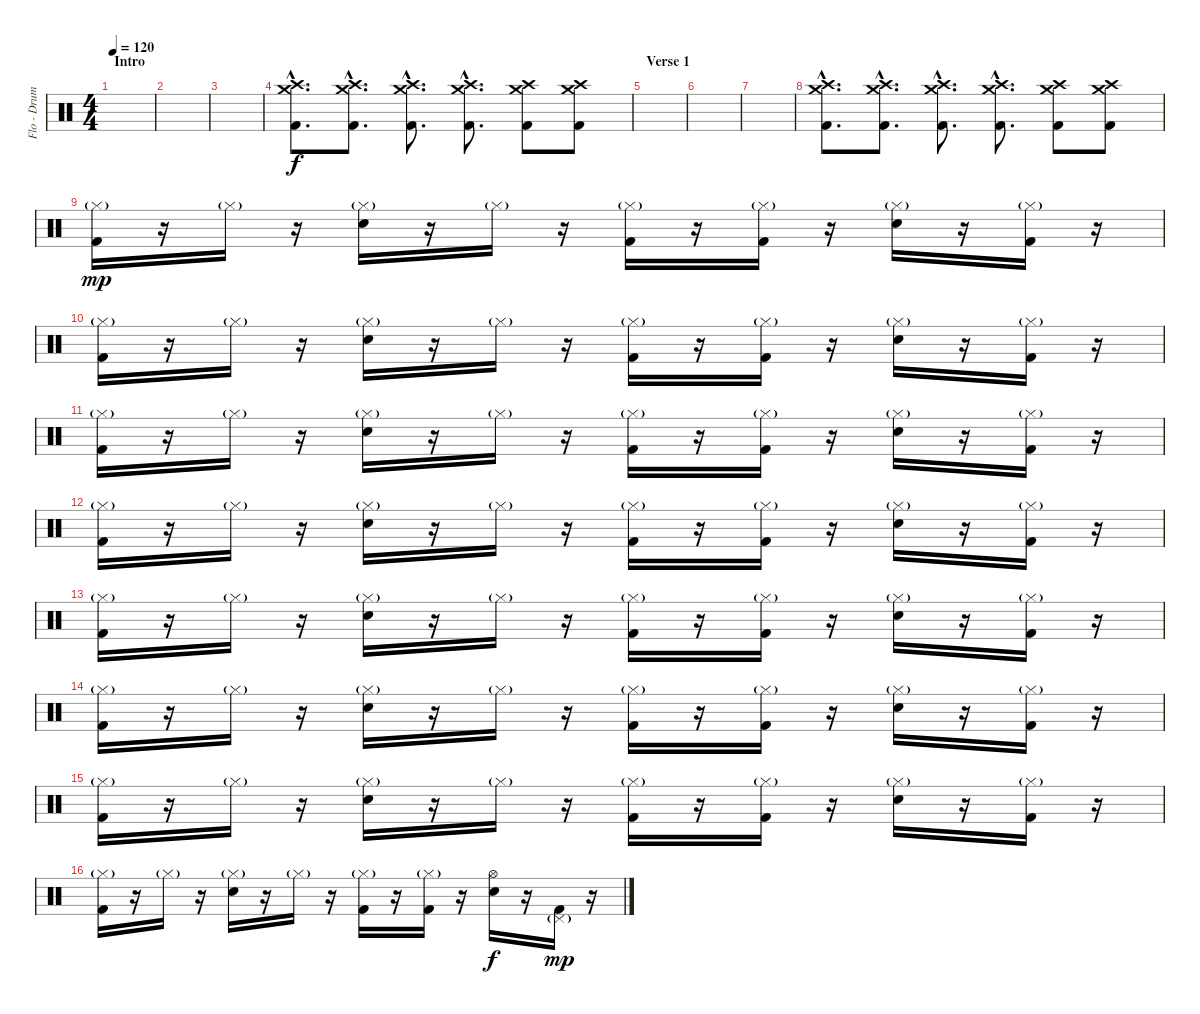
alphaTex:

\track ("Flo - Drums" "Flo - Drum") {instrument percussion}
\staff {score}
\articulation defaults
\ts (4 4)
\section ("" "Intro")
\tempo 120
\clef neutral
\ks c
|
|
|
("Crash medium (hit)"{hac} "Crash high (hit)"{hac} "Kick (hit) 2"{hac}).8{d} ("Crash medium (hit)"{hac} "Crash high (hit)"{hac} "Kick (hit) 2"{hac}).8{d} ("Crash medium (hit)"{hac} "Crash high (hit)"{hac} "Kick (hit) 2"{hac}).8{d} ("Crash medium (hit)"{hac} "Crash high (hit)"{hac} "Kick (hit) 2"{hac}).8{d} ("Crash medium (hit)" "Crash high (hit)" "Kick (hit) 2").8 ("Crash medium (hit)" "Crash high (hit)" "Kick (hit) 2").8 |
\section ("" "Verse 1")
|
|
|
("Crash medium (hit)"{hac} "Crash high (hit)"{hac} "Kick (hit) 2"{hac}).8{d} ("Crash medium (hit)"{hac} "Crash high (hit)"{hac} "Kick (hit) 2"{hac}).8{d} ("Crash medium (hit)"{hac} "Crash high (hit)"{hac} "Kick (hit) 2"{hac}).8{d} ("Crash medium (hit)"{hac} "Crash high (hit)"{hac} "Kick (hit) 2"{hac}).8{d} ("Crash medium (hit)" "Crash high (hit)" "Kick (hit) 2").8 ("Crash medium (hit)" "Crash high (hit)" "Kick (hit) 2").8 |
("Hi-Hat (closed)"{g} "Kick (hit) 2").16{dy mp} r.16 "Hi-Hat (closed)"{g}.16 r.16 ("Hi-Hat (closed)"{g} "Electric Snare (hit)").16 r.16 "Hi-Hat (closed)"{g}.16 r.16 ("Hi-Hat (closed)"{g} "Kick (hit) 2").16 r.16 ("Hi-Hat (closed)"{g} "Kick (hit) 2").16 r.16 ("Hi-Hat (closed)"{g} "Electric Snare (hit)").16 r.16 ("Hi-Hat (closed)"{g} "Kick (hit) 2").16 r.16 |
("Hi-Hat (closed)"{g} "Kick (hit) 2").16 r.16 "Hi-Hat (closed)"{g}.16 r.16 ("Hi-Hat (closed)"{g} "Electric Snare (hit)").16 r.16 "Hi-Hat (closed)"{g}.16 r.16 ("Hi-Hat (closed)"{g} "Kick (hit) 2").16 r.16 ("Hi-Hat (closed)"{g} "Kick (hit) 2").16 r.16 ("Hi-Hat (closed)"{g} "Electric Snare (hit)").16 r.16 ("Hi-Hat (closed)"{g} "Kick (hit) 2").16 r.16 |
("Hi-Hat (closed)"{g} "Kick (hit) 2").16 r.16 "Hi-Hat (closed)"{g}.16 r.16 ("Hi-Hat (closed)"{g} "Electric Snare (hit)").16 r.16 "Hi-Hat (closed)"{g}.16 r.16 ("Hi-Hat (closed)"{g} "Kick (hit) 2").16 r.16 ("Hi-Hat (closed)"{g} "Kick (hit) 2").16 r.16 ("Hi-Hat (closed)"{g} "Electric Snare (hit)").16 r.16 ("Hi-Hat (closed)"{g} "Kick (hit) 2").16 r.16 |
("Hi-Hat (closed)"{g} "Kick (hit) 2").16 r.16 "Hi-Hat (closed)"{g}.16 r.16 ("Hi-Hat (closed)"{g} "Electric Snare (hit)").16 r.16 "Hi-Hat (closed)"{g}.16 r.16 ("Hi-Hat (closed)"{g} "Kick (hit) 2").16 r.16 ("Hi-Hat (closed)"{g} "Kick (hit) 2").16 r.16 ("Hi-Hat (closed)"{g} "Electric Snare (hit)").16 r.16 ("Hi-Hat (closed)"{g} "Kick (hit) 2").16 r.16 |
("Hi-Hat (closed)"{g} "Kick (hit) 2").16 r.16 "Hi-Hat (closed)"{g}.16 r.16 ("Hi-Hat (closed)"{g} "Electric Snare (hit)").16 r.16 "Hi-Hat (closed)"{g}.16 r.16 ("Hi-Hat (closed)"{g} "Kick (hit) 2").16 r.16 ("Hi-Hat (closed)"{g} "Kick (hit) 2").16 r.16 ("Hi-Hat (closed)"{g} "Electric Snare (hit)").16 r.16 ("Hi-Hat (closed)"{g} "Kick (hit) 2").16 r.16 |
("Hi-Hat (closed)"{g} "Kick (hit) 2").16 r.16 "Hi-Hat (closed)"{g}.16 r.16 ("Hi-Hat (closed)"{g} "Electric Snare (hit)").16 r.16 "Hi-Hat (closed)"{g}.16 r.16 ("Hi-Hat (closed)"{g} "Kick (hit) 2").16 r.16 ("Hi-Hat (closed)"{g} "Kick (hit) 2").16 r.16 ("Hi-Hat (closed)"{g} "Electric Snare (hit)").16 r.16 ("Hi-Hat (closed)"{g} "Kick (hit) 2").16 r.16 |
("Hi-Hat (closed)"{g} "Kick (hit) 2").16 r.16 "Hi-Hat (closed)"{g}.16 r.16 ("Hi-Hat (closed)"{g} "Electric Snare (hit)").16 r.16 "Hi-Hat (closed)"{g}.16 r.16 ("Hi-Hat (closed)"{g} "Kick (hit) 2").16 r.16 ("Hi-Hat (closed)"{g} "Kick (hit) 2").16 r.16 ("Hi-Hat (closed)"{g} "Electric Snare (hit)").16 r.16 ("Hi-Hat (closed)"{g} "Kick (hit) 2").16 r.16 |
("Hi-Hat (closed)"{g} "Kick (hit) 2").16 r.16 "Hi-Hat (closed)"{g}.16 r.16 ("Hi-Hat (closed)"{g} "Electric Snare (hit)").16 r.16 "Hi-Hat (closed)"{g}.16 r.16 ("Hi-Hat (closed)"{g} "Kick (hit) 2").16 r.16 ("Hi-Hat (closed)"{g} "Kick (hit) 2").16 r.16 ("Hi-Hat (open)" "Electric Snare (hit)").16{dy f} r.16 ("Pedal Hi-Hat (hit)"{g} "Kick (hit) 2").16{dy mp} r.16
